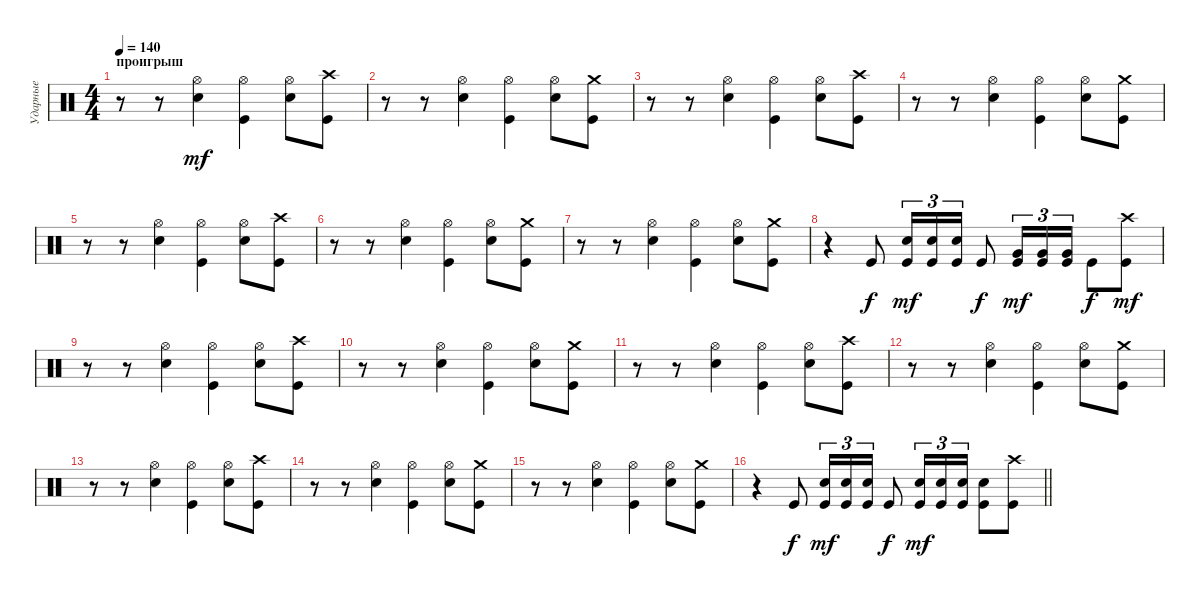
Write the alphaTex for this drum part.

\track ("Ударные" "Ударные") {instrument percussion}
\staff {score}
\articulation defaults
\ts (4 4)
\section ("" "проигрыш")
\tempo 140
\clef neutral
\ks c
r.8{dy f} r.8 ("Electric Snare (hit)" "Hi-Hat (open)").4{dy mf} ("Kick (hit)" "Hi-Hat (open)").4 ("Electric Snare (hit)" "Hi-Hat (open)").8 ("Kick (hit)" "Crash high (hit)").8 |
r.8 r.8 ("Electric Snare (hit)" "Hi-Hat (open)").4 ("Kick (hit)" "Hi-Hat (open)").4 ("Electric Snare (hit)" "Hi-Hat (open)").8 ("Kick (hit)" "Crash medium (hit)").8 |
r.8 r.8 ("Electric Snare (hit)" "Hi-Hat (open)").4 ("Kick (hit)" "Hi-Hat (open)").4 ("Electric Snare (hit)" "Hi-Hat (open)").8 ("Kick (hit)" "Crash high (hit)").8 |
r.8 r.8 ("Electric Snare (hit)" "Hi-Hat (open)").4 ("Kick (hit)" "Hi-Hat (open)").4 ("Electric Snare (hit)" "Hi-Hat (open)").8 ("Kick (hit)" "Crash medium (hit)").8 |
r.8 r.8 ("Electric Snare (hit)" "Hi-Hat (open)").4 ("Kick (hit)" "Hi-Hat (open)").4 ("Electric Snare (hit)" "Hi-Hat (open)").8 ("Kick (hit)" "Crash high (hit)").8 |
r.8 r.8 ("Electric Snare (hit)" "Hi-Hat (open)").4 ("Kick (hit)" "Hi-Hat (open)").4 ("Electric Snare (hit)" "Hi-Hat (open)").8 ("Kick (hit)" "Crash medium (hit)").8 |
r.8 r.8 ("Electric Snare (hit)" "Hi-Hat (open)").4 ("Kick (hit)" "Hi-Hat (open)").4 ("Electric Snare (hit)" "Hi-Hat (open)").8 ("Kick (hit)" "Crash medium (hit)").8 |
r.4 "Kick (hit)".8{dy f} ("Kick (hit)" "Electric Snare (hit)").16{tu (3 2) dy mf} ("Kick (hit)" "Electric Snare (hit)").16{tu (3 2)} ("Kick (hit)" "Electric Snare (hit)").16{tu (3 2)} "Kick (hit)".8{dy f} ("Kick (hit)" "Very Low Tom (hit)").16{tu (3 2) dy mf} ("Kick (hit)" "Very Low Tom (hit)").16{tu (3 2)} ("Kick (hit)" "Very Low Tom (hit)").16{tu (3 2)} "Kick (hit)".8{dy f} ("Kick (hit)" "Crash high (hit)").8{dy mf} |
r.8 r.8 ("Electric Snare (hit)" "Hi-Hat (open)").4 ("Kick (hit)" "Hi-Hat (open)").4 ("Electric Snare (hit)" "Hi-Hat (open)").8 ("Kick (hit)" "Crash high (hit)").8 |
r.8 r.8 ("Electric Snare (hit)" "Hi-Hat (open)").4 ("Kick (hit)" "Hi-Hat (open)").4 ("Electric Snare (hit)" "Hi-Hat (open)").8 ("Kick (hit)" "Crash medium (hit)").8 |
r.8 r.8 ("Electric Snare (hit)" "Hi-Hat (open)").4 ("Kick (hit)" "Hi-Hat (open)").4 ("Electric Snare (hit)" "Hi-Hat (open)").8 ("Kick (hit)" "Crash high (hit)").8 |
r.8 r.8 ("Electric Snare (hit)" "Hi-Hat (open)").4 ("Kick (hit)" "Hi-Hat (open)").4 ("Electric Snare (hit)" "Hi-Hat (open)").8 ("Kick (hit)" "Crash medium (hit)").8 |
r.8 r.8 ("Electric Snare (hit)" "Hi-Hat (open)").4 ("Kick (hit)" "Hi-Hat (open)").4 ("Electric Snare (hit)" "Hi-Hat (open)").8 ("Kick (hit)" "Crash high (hit)").8 |
r.8 r.8 ("Electric Snare (hit)" "Hi-Hat (open)").4 ("Kick (hit)" "Hi-Hat (open)").4 ("Electric Snare (hit)" "Hi-Hat (open)").8 ("Kick (hit)" "Crash medium (hit)").8 |
r.8 r.8 ("Electric Snare (hit)" "Hi-Hat (open)").4 ("Kick (hit)" "Hi-Hat (open)").4 ("Electric Snare (hit)" "Hi-Hat (open)").8 ("Kick (hit)" "Crash medium (hit)").8 |
\barLineRight lightlight
r.4 "Kick (hit)".8{dy f} ("Kick (hit)" "Electric Snare (hit)").16{tu (3 2) dy mf} ("Kick (hit)" "Electric Snare (hit)").16{tu (3 2)} ("Kick (hit)" "Electric Snare (hit)").16{tu (3 2)} "Kick (hit)".8{dy f} ("Kick (hit)" "Electric Snare (hit)").16{tu (3 2) dy mf} ("Kick (hit)" "Electric Snare (hit)").16{tu (3 2)} ("Kick (hit)" "Electric Snare (hit)").16{tu (3 2)} ("Kick (hit)" "Electric Snare (hit)").8 ("Kick (hit)" "Crash high (hit)").8
